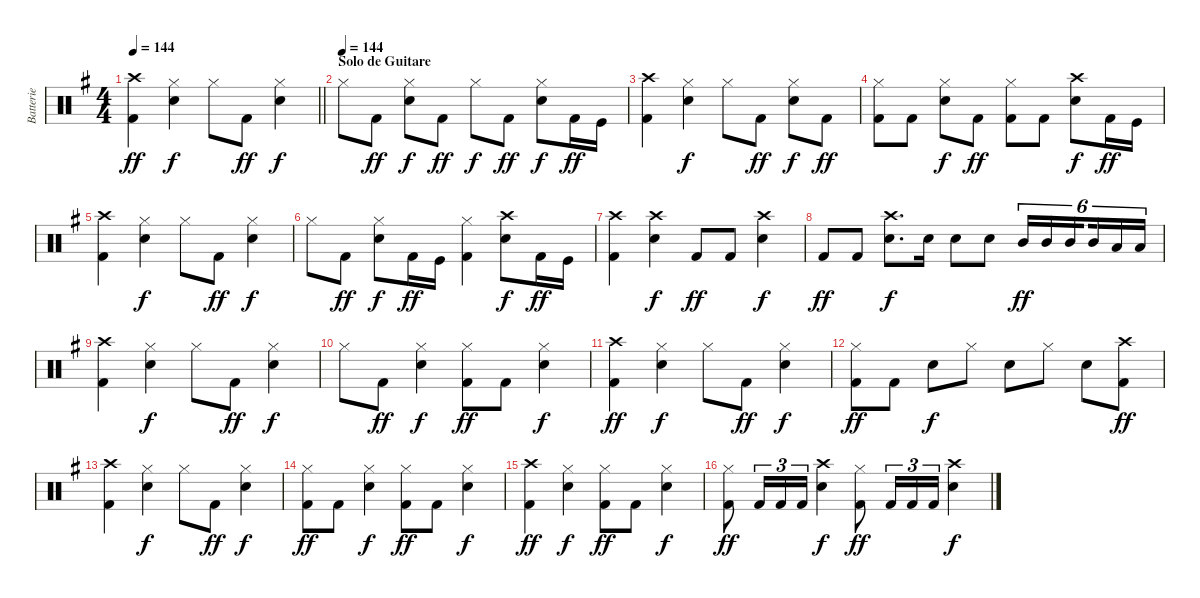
\track ("Batterie" "Batterie") {instrument percussion}
\staff {score}
\articulation defaults
\ts (4 4)
\tempo 144
\clef neutral
\barLineRight lightlight
\ks g
("Crash high (hit)" "Kick (hit) 2").4{dy ff} ("Hi-Hat (closed)" "Snare (hit) 2").4{dy f} "Hi-Hat (closed)".8 "Kick (hit) 2".8{dy ff} ("Hi-Hat (closed)" "Snare (hit) 2").4{dy f} |
\section ("" "Solo de Guitare")
\tempo (144)
"Hi-Hat (closed)".8 "Kick (hit) 2".8{dy ff} ("Hi-Hat (closed)" "Snare (hit) 2").8{dy f} "Kick (hit) 2".8{dy ff} "Hi-Hat (closed)".8{dy f} "Kick (hit) 2".8{dy ff} ("Hi-Hat (closed)" "Snare (hit) 2").8{dy f} "Kick (hit) 2".16{dy ff} "Kick (hit)".16 |
("Crash high (hit)" "Kick (hit) 2").4 ("Hi-Hat (closed)" "Snare (hit) 2").4{dy f} "Hi-Hat (closed)".8 "Kick (hit) 2".8{dy ff} ("Hi-Hat (closed)" "Snare (hit) 2").8{dy f} "Kick (hit) 2".8{dy ff} |
("Hi-Hat (closed)" "Kick (hit) 2").8 "Kick (hit) 2".8 ("Hi-Hat (closed)" "Snare (hit) 2").8{dy f} "Kick (hit) 2".8{dy ff} ("Hi-Hat (closed)" "Kick (hit) 2").8 "Kick (hit) 2".8 ("Crash high (hit)" "Snare (hit) 2").8{dy f} "Kick (hit) 2".16{dy ff} "Kick (hit)".16 |
("Crash high (hit)" "Kick (hit) 2").4 ("Hi-Hat (closed)" "Snare (hit) 2").4{dy f} "Hi-Hat (closed)".8 "Kick (hit) 2".8{dy ff} ("Hi-Hat (closed)" "Snare (hit) 2").4{dy f} |
"Hi-Hat (closed)".8 "Kick (hit) 2".8{dy ff} ("Hi-Hat (closed)" "Snare (hit) 2").8{dy f} "Kick (hit) 2".16{dy ff} "Kick (hit)".16 ("Hi-Hat (closed)" "Kick (hit) 2").4 ("Crash high (hit)" "Snare (hit) 2").8{dy f} "Kick (hit) 2".16{dy ff} "Kick (hit)".16 |
("Crash high (hit)" "Kick (hit) 2").4 ("Crash high (hit)" "Snare (hit) 2").4{dy f} "Kick (hit) 2".8{dy ff} "Kick (hit) 2".8 ("Crash high (hit)" "Snare (hit) 2").4{dy f} |
"Kick (hit) 2".8{dy ff} "Kick (hit) 2".8 ("Crash high (hit)" "Snare (hit) 2").8{d dy f} "Snare (hit) 2".16 "Snare (hit) 2".8 "Snare (hit) 2".8 "Mid Tom (hit)".16{tu (6 4) dy ff} "Mid Tom (hit)".16{tu (6 4)} "Mid Tom (hit)".16{tu (6 4) beam splitsecondary} "Mid Tom (hit)".16{tu (6 4)} "Low Tom (hit)".16{tu (6 4)} "Low Tom (hit)".16{tu (6 4)} |
("Crash high (hit)" "Kick (hit) 2").4 ("Hi-Hat (closed)" "Snare (hit) 2").4{dy f} "Hi-Hat (closed)".8 "Kick (hit) 2".8{dy ff} ("Hi-Hat (closed)" "Snare (hit) 2").4{dy f} |
"Hi-Hat (closed)".8 "Kick (hit) 2".8{dy ff} ("Hi-Hat (closed)" "Snare (hit) 2").4{dy f} ("Hi-Hat (closed)" "Kick (hit) 2").8{dy ff} "Kick (hit) 2".8 ("Hi-Hat (closed)" "Snare (hit) 2").4{dy f} |
("Crash high (hit)" "Kick (hit) 2").4{dy ff} ("Hi-Hat (closed)" "Snare (hit) 2").4{dy f} "Hi-Hat (closed)".8 "Kick (hit) 2".8{dy ff} ("Hi-Hat (closed)" "Snare (hit) 2").4{dy f} |
("Hi-Hat (closed)" "Kick (hit) 2").8{dy ff} "Kick (hit) 2".8 "Snare (hit) 2".8{dy f} "Hi-Hat (closed)".8 "Snare (hit) 2".8 "Hi-Hat (closed)".8 "Snare (hit) 2".8 ("Crash high (hit)" "Kick (hit) 2").8{dy ff} |
("Crash high (hit)" "Kick (hit) 2").4 ("Hi-Hat (closed)" "Snare (hit) 2").4{dy f} "Hi-Hat (closed)".8 "Kick (hit) 2".8{dy ff} ("Hi-Hat (closed)" "Snare (hit) 2").4{dy f} |
("Hi-Hat (closed)" "Kick (hit) 2").8{dy ff} "Kick (hit) 2".8 ("Hi-Hat (closed)" "Snare (hit) 2").4{dy f} ("Hi-Hat (closed)" "Kick (hit) 2").8{dy ff} "Kick (hit) 2".8 ("Hi-Hat (closed)" "Snare (hit) 2").4{dy f} |
("Crash high (hit)" "Kick (hit) 2").4{dy ff} ("Hi-Hat (closed)" "Snare (hit) 2").4{dy f} ("Hi-Hat (closed)" "Kick (hit) 2").8{dy ff} "Kick (hit) 2".8 ("Hi-Hat (closed)" "Snare (hit) 2").4{dy f} |
("Hi-Hat (closed)" "Kick (hit) 2").8{dy ff} "Kick (hit) 2".16{tu (3 2)} "Kick (hit) 2".16{tu (3 2)} "Kick (hit) 2".16{tu (3 2)} ("Crash high (hit)" "Snare (hit) 2").4{dy f} ("Hi-Hat (closed)" "Kick (hit) 2").8{dy ff} "Kick (hit) 2".16{tu (3 2)} "Kick (hit) 2".16{tu (3 2)} "Kick (hit) 2".16{tu (3 2)} ("Crash high (hit)" "Snare (hit) 2").4{dy f}
